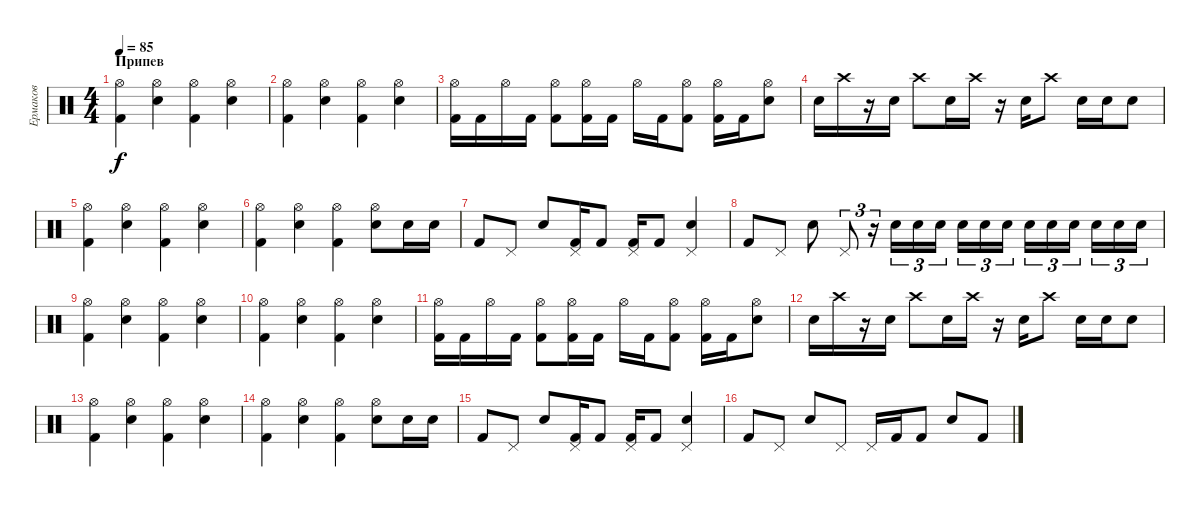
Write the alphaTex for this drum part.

\track ("Ермаков" "Ермаков") {instrument percussion}
\staff {score}
\articulation defaults
\ts (4 4)
\section ("" "Припев")
\tempo 85
\clef neutral
\ks c
("Hi-Hat (open)" "Kick (hit) 2").4{dy f} ("Hi-Hat (open)" "Snare (hit) 2").4 ("Hi-Hat (open)" "Kick (hit) 2").4 ("Hi-Hat (open)" "Snare (hit) 2").4 |
("Hi-Hat (open)" "Kick (hit) 2").4 ("Hi-Hat (open)" "Snare (hit) 2").4 ("Hi-Hat (open)" "Kick (hit) 2").4 ("Hi-Hat (open)" "Snare (hit) 2").4 |
("Hi-Hat (open)" "Kick (hit) 2").16 "Kick (hit) 2".16 "Hi-Hat (open)".16 "Kick (hit) 2".16 ("Hi-Hat (open)" "Kick (hit) 2").8 ("Hi-Hat (open)" "Kick (hit) 2").16 "Kick (hit) 2".16 "Hi-Hat (open)".16 "Kick (hit) 2".16 ("Hi-Hat (open)" "Kick (hit) 2").8 ("Hi-Hat (open)" "Kick (hit) 2").16 "Kick (hit) 2".16 ("Hi-Hat (open)" "Snare (hit) 2").8 |
"Snare (hit) 2".16 "Crash high (hit)".16 r.16 "Snare (hit) 2".16 "Crash high (hit)".8 "Snare (hit) 2".16 "Crash high (hit)".16 r.16 "Snare (hit) 2".16 "Crash high (hit)".8 "Snare (hit) 2".16 "Snare (hit) 2".16 "Snare (hit) 2".8 |
("Hi-Hat (open)" "Kick (hit) 2").4 ("Hi-Hat (open)" "Snare (hit) 2").4 ("Hi-Hat (open)" "Kick (hit) 2").4 ("Hi-Hat (open)" "Snare (hit) 2").4 |
("Hi-Hat (open)" "Kick (hit) 2").4 ("Hi-Hat (open)" "Snare (hit) 2").4 ("Hi-Hat (open)" "Kick (hit) 2").4 ("Hi-Hat (open)" "Snare (hit) 2").8 "Snare (hit) 2".16 "Snare (hit) 2".16 |
"Kick (hit) 2".8 "Pedal Hi-Hat (hit)".8 "Electric Snare (hit)".8 ("Pedal Hi-Hat (hit)" "Kick (hit) 2").16 "Kick (hit) 2".8 ("Pedal Hi-Hat (hit)" "Kick (hit) 2").16 "Kick (hit) 2".8 ("Pedal Hi-Hat (hit)" "Snare (hit) 2").4 |
"Kick (hit) 2".8 "Pedal Hi-Hat (hit)".8 "Electric Snare (hit)".8 "Pedal Hi-Hat (hit)".8{tu (3 2)} r.16{tu (3 2)} "Snare (hit) 2".16{tu (3 2)} "Snare (hit) 2".16{tu (3 2)} "Snare (hit) 2".16{tu (3 2) beam splitsecondary} "Snare (hit) 2".16{tu (3 2)} "Snare (hit) 2".16{tu (3 2)} "Snare (hit) 2".16{tu (3 2)} "Snare (hit) 2".16{tu (3 2)} "Snare (hit) 2".16{tu (3 2)} "Snare (hit) 2".16{tu (3 2) beam splitsecondary} "Snare (hit) 2".16{tu (3 2)} "Snare (hit) 2".16{tu (3 2)} "Snare (hit) 2".16{tu (3 2)} |
("Hi-Hat (open)" "Kick (hit) 2").4 ("Hi-Hat (open)" "Snare (hit) 2").4 ("Hi-Hat (open)" "Kick (hit) 2").4 ("Hi-Hat (open)" "Snare (hit) 2").4 |
("Hi-Hat (open)" "Kick (hit) 2").4 ("Hi-Hat (open)" "Snare (hit) 2").4 ("Hi-Hat (open)" "Kick (hit) 2").4 ("Hi-Hat (open)" "Snare (hit) 2").4 |
("Hi-Hat (open)" "Kick (hit) 2").16 "Kick (hit) 2".16 "Hi-Hat (open)".16 "Kick (hit) 2".16 ("Hi-Hat (open)" "Kick (hit) 2").8 ("Hi-Hat (open)" "Kick (hit) 2").16 "Kick (hit) 2".16 "Hi-Hat (open)".16 "Kick (hit) 2".16 ("Hi-Hat (open)" "Kick (hit) 2").8 ("Hi-Hat (open)" "Kick (hit) 2").16 "Kick (hit) 2".16 ("Hi-Hat (open)" "Snare (hit) 2").8 |
"Snare (hit) 2".16 "Crash high (hit)".16 r.16 "Snare (hit) 2".16 "Crash high (hit)".8 "Snare (hit) 2".16 "Crash high (hit)".16 r.16 "Snare (hit) 2".16 "Crash high (hit)".8 "Snare (hit) 2".16 "Snare (hit) 2".16 "Snare (hit) 2".8 |
("Hi-Hat (open)" "Kick (hit) 2").4 ("Hi-Hat (open)" "Snare (hit) 2").4 ("Hi-Hat (open)" "Kick (hit) 2").4 ("Hi-Hat (open)" "Snare (hit) 2").4 |
("Hi-Hat (open)" "Kick (hit) 2").4 ("Hi-Hat (open)" "Snare (hit) 2").4 ("Hi-Hat (open)" "Kick (hit) 2").4 ("Hi-Hat (open)" "Snare (hit) 2").8 "Snare (hit) 2".16 "Snare (hit) 2".16 |
"Kick (hit) 2".8 "Pedal Hi-Hat (hit)".8 "Electric Snare (hit)".8 ("Pedal Hi-Hat (hit)" "Kick (hit) 2").16 "Kick (hit) 2".8 ("Pedal Hi-Hat (hit)" "Kick (hit) 2").16 "Kick (hit) 2".8 ("Pedal Hi-Hat (hit)" "Snare (hit) 2").4 |
"Kick (hit) 2".8 "Pedal Hi-Hat (hit)".8 "Electric Snare (hit)".8 "Pedal Hi-Hat (hit)".8 "Pedal Hi-Hat (hit)".16 "Kick (hit) 2".16 "Kick (hit) 2".8 "Snare (hit) 2".8 "Kick (hit) 2".8
